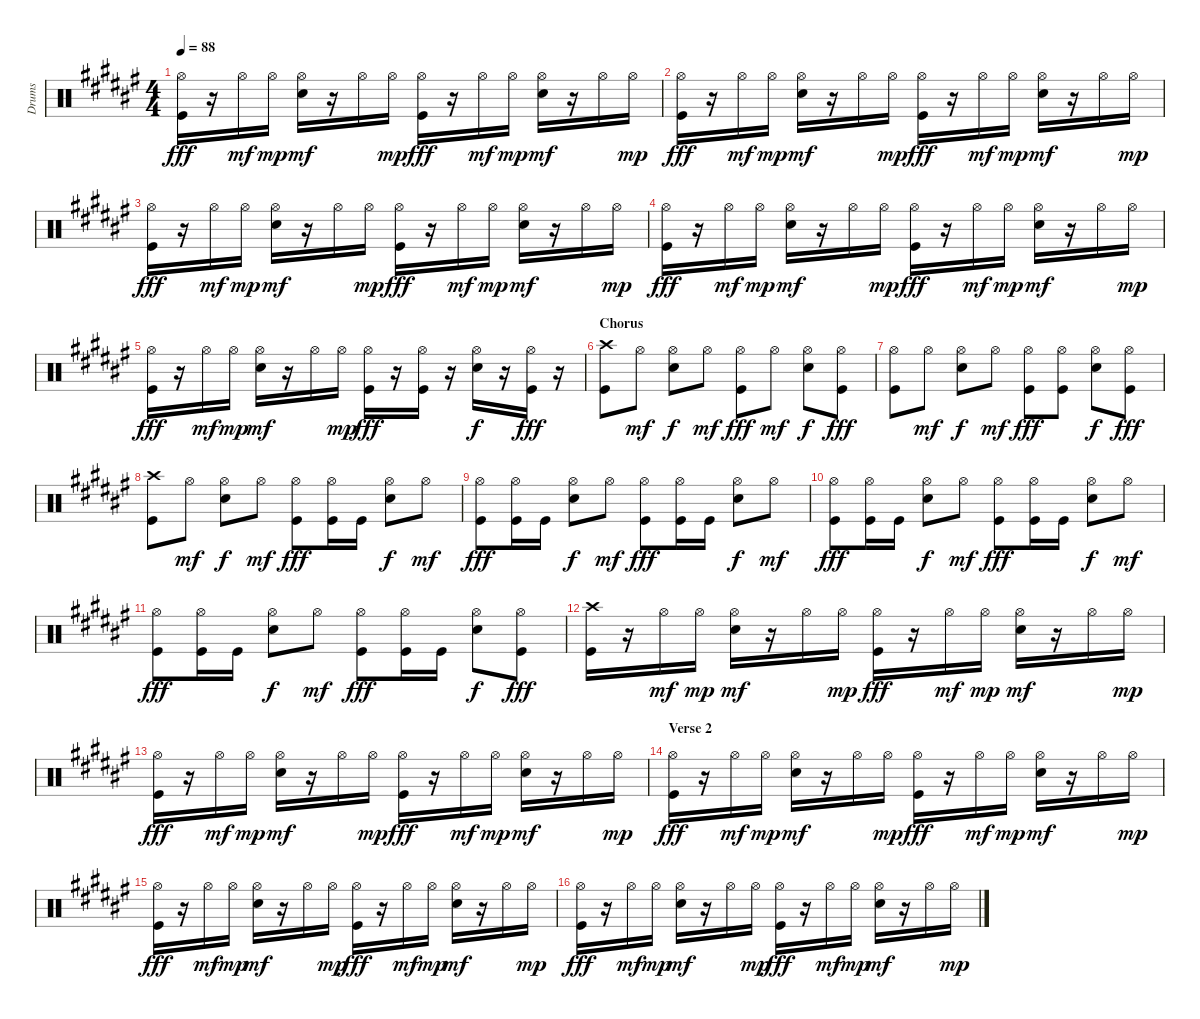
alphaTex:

\track ("Drums" "Drums") {instrument percussion}
\staff {score}
\articulation defaults
\ts (4 4)
\tempo 88
\clef neutral
\ks f#
("Hi-Hat (open)" "Kick (hit)").16{dy fff} r.16 "Hi-Hat (open)".16{dy mf} "Hi-Hat (open)".16{dy mp} ("Hi-Hat (open)" "Snare (hit) 2").16{dy mf} r.16 "Hi-Hat (open)".16 "Hi-Hat (open)".16{dy mp} ("Hi-Hat (open)" "Kick (hit)").16{dy fff} r.16 "Hi-Hat (open)".16{dy mf} "Hi-Hat (open)".16{dy mp} ("Hi-Hat (open)" "Snare (hit) 2").16{dy mf} r.16 "Hi-Hat (open)".16 "Hi-Hat (open)".16{dy mp} |
("Hi-Hat (open)" "Kick (hit)").16{dy fff} r.16 "Hi-Hat (open)".16{dy mf} "Hi-Hat (open)".16{dy mp} ("Hi-Hat (open)" "Snare (hit) 2").16{dy mf} r.16 "Hi-Hat (open)".16 "Hi-Hat (open)".16{dy mp} ("Hi-Hat (open)" "Kick (hit)").16{dy fff} r.16 "Hi-Hat (open)".16{dy mf} "Hi-Hat (open)".16{dy mp} ("Hi-Hat (open)" "Snare (hit) 2").16{dy mf} r.16 "Hi-Hat (open)".16 "Hi-Hat (open)".16{dy mp} |
("Hi-Hat (open)" "Kick (hit)").16{dy fff} r.16 "Hi-Hat (open)".16{dy mf} "Hi-Hat (open)".16{dy mp} ("Hi-Hat (open)" "Snare (hit) 2").16{dy mf} r.16 "Hi-Hat (open)".16 "Hi-Hat (open)".16{dy mp} ("Hi-Hat (open)" "Kick (hit)").16{dy fff} r.16 "Hi-Hat (open)".16{dy mf} "Hi-Hat (open)".16{dy mp} ("Hi-Hat (open)" "Snare (hit) 2").16{dy mf} r.16 "Hi-Hat (open)".16 "Hi-Hat (open)".16{dy mp} |
("Hi-Hat (open)" "Kick (hit)").16{dy fff} r.16 "Hi-Hat (open)".16{dy mf} "Hi-Hat (open)".16{dy mp} ("Hi-Hat (open)" "Snare (hit) 2").16{dy mf} r.16 "Hi-Hat (open)".16 "Hi-Hat (open)".16{dy mp} ("Hi-Hat (open)" "Kick (hit)").16{dy fff} r.16 "Hi-Hat (open)".16{dy mf} "Hi-Hat (open)".16{dy mp} ("Hi-Hat (open)" "Snare (hit) 2").16{dy mf} r.16 "Hi-Hat (open)".16 "Hi-Hat (open)".16{dy mp} |
("Hi-Hat (open)" "Kick (hit)").16{dy fff} r.16 "Hi-Hat (open)".16{dy mf} "Hi-Hat (open)".16{dy mp} ("Hi-Hat (open)" "Snare (hit) 2").16{dy mf} r.16 "Hi-Hat (open)".16 "Hi-Hat (open)".16{dy mp} ("Hi-Hat (open)" "Kick (hit)").16{dy fff} r.16 ("Hi-Hat (open)" "Kick (hit)").16 r.16 ("Hi-Hat (open)" "Snare (hit) 2").16{dy f} r.16 ("Hi-Hat (open)" "Kick (hit)").16{dy fff} r.16 |
\section ("" "Chorus")
("Crash high (hit)" "Kick (hit)").8 "Hi-Hat (open)".8{dy mf} ("Hi-Hat (open)" "Snare (hit) 2").8{dy f} "Hi-Hat (open)".8{dy mf} ("Hi-Hat (open)" "Kick (hit)").8{dy fff} "Hi-Hat (open)".8{dy mf} ("Hi-Hat (open)" "Snare (hit) 2").8{dy f} ("Hi-Hat (open)" "Kick (hit)").8{dy fff} |
("Hi-Hat (open)" "Kick (hit)").8 "Hi-Hat (open)".8{dy mf} ("Hi-Hat (open)" "Snare (hit) 2").8{dy f} "Hi-Hat (open)".8{dy mf} ("Hi-Hat (open)" "Kick (hit)").8{dy fff} ("Hi-Hat (open)" "Kick (hit)").8 ("Hi-Hat (open)" "Snare (hit) 2").8{dy f} ("Hi-Hat (open)" "Kick (hit)").8{dy fff} |
("Crash high (hit)" "Kick (hit)").8 "Hi-Hat (open)".8{dy mf} ("Hi-Hat (open)" "Snare (hit) 2").8{dy f} "Hi-Hat (open)".8{dy mf} ("Hi-Hat (open)" "Kick (hit)").8{dy fff} ("Hi-Hat (open)" "Kick (hit)").16 "Kick (hit)".16 ("Hi-Hat (open)" "Snare (hit) 2").8{dy f} "Hi-Hat (open)".8{dy mf} |
("Hi-Hat (open)" "Kick (hit)").8{dy fff} ("Hi-Hat (open)" "Kick (hit)").16 "Kick (hit)".16 ("Hi-Hat (open)" "Snare (hit) 2").8{dy f} "Hi-Hat (open)".8{dy mf} ("Hi-Hat (open)" "Kick (hit)").8{dy fff} ("Hi-Hat (open)" "Kick (hit)").16 "Kick (hit)".16 ("Hi-Hat (open)" "Snare (hit) 2").8{dy f} "Hi-Hat (open)".8{dy mf} |
("Hi-Hat (open)" "Kick (hit)").8{dy fff} ("Hi-Hat (open)" "Kick (hit)").16 "Kick (hit)".16 ("Hi-Hat (open)" "Snare (hit) 2").8{dy f} "Hi-Hat (open)".8{dy mf} ("Hi-Hat (open)" "Kick (hit)").8{dy fff} ("Hi-Hat (open)" "Kick (hit)").16 "Kick (hit)".16 ("Hi-Hat (open)" "Snare (hit) 2").8{dy f} "Hi-Hat (open)".8{dy mf} |
("Hi-Hat (open)" "Kick (hit)").8{dy fff} ("Hi-Hat (open)" "Kick (hit)").16 "Kick (hit)".16 ("Hi-Hat (open)" "Snare (hit) 2").8{dy f} "Hi-Hat (open)".8{dy mf} ("Hi-Hat (open)" "Kick (hit)").8{dy fff} ("Hi-Hat (open)" "Kick (hit)").16 "Kick (hit)".16 ("Hi-Hat (open)" "Snare (hit) 2").8{dy f} ("Hi-Hat (open)" "Kick (hit)").8{dy fff} |
("Crash high (hit)" "Kick (hit)").16 r.16 "Hi-Hat (open)".16{dy mf} "Hi-Hat (open)".16{dy mp} ("Hi-Hat (open)" "Snare (hit) 2").16{dy mf} r.16 "Hi-Hat (open)".16 "Hi-Hat (open)".16{dy mp} ("Hi-Hat (open)" "Kick (hit)").16{dy fff} r.16 "Hi-Hat (open)".16{dy mf} "Hi-Hat (open)".16{dy mp} ("Hi-Hat (open)" "Snare (hit) 2").16{dy mf} r.16 "Hi-Hat (open)".16 "Hi-Hat (open)".16{dy mp} |
("Hi-Hat (open)" "Kick (hit)").16{dy fff} r.16 "Hi-Hat (open)".16{dy mf} "Hi-Hat (open)".16{dy mp} ("Hi-Hat (open)" "Snare (hit) 2").16{dy mf} r.16 "Hi-Hat (open)".16 "Hi-Hat (open)".16{dy mp} ("Hi-Hat (open)" "Kick (hit)").16{dy fff} r.16 "Hi-Hat (open)".16{dy mf} "Hi-Hat (open)".16{dy mp} ("Hi-Hat (open)" "Snare (hit) 2").16{dy mf} r.16 "Hi-Hat (open)".16 "Hi-Hat (open)".16{dy mp} |
\section ("" "Verse 2")
("Hi-Hat (open)" "Kick (hit)").16{dy fff} r.16 "Hi-Hat (open)".16{dy mf} "Hi-Hat (open)".16{dy mp} ("Hi-Hat (open)" "Snare (hit) 2").16{dy mf} r.16 "Hi-Hat (open)".16 "Hi-Hat (open)".16{dy mp} ("Hi-Hat (open)" "Kick (hit)").16{dy fff} r.16 "Hi-Hat (open)".16{dy mf} "Hi-Hat (open)".16{dy mp} ("Hi-Hat (open)" "Snare (hit) 2").16{dy mf} r.16 "Hi-Hat (open)".16 "Hi-Hat (open)".16{dy mp} |
("Hi-Hat (open)" "Kick (hit)").16{dy fff} r.16 "Hi-Hat (open)".16{dy mf} "Hi-Hat (open)".16{dy mp} ("Hi-Hat (open)" "Snare (hit) 2").16{dy mf} r.16 "Hi-Hat (open)".16 "Hi-Hat (open)".16{dy mp} ("Hi-Hat (open)" "Kick (hit)").16{dy fff} r.16 "Hi-Hat (open)".16{dy mf} "Hi-Hat (open)".16{dy mp} ("Hi-Hat (open)" "Snare (hit) 2").16{dy mf} r.16 "Hi-Hat (open)".16 "Hi-Hat (open)".16{dy mp} |
("Hi-Hat (open)" "Kick (hit)").16{dy fff} r.16 "Hi-Hat (open)".16{dy mf} "Hi-Hat (open)".16{dy mp} ("Hi-Hat (open)" "Snare (hit) 2").16{dy mf} r.16 "Hi-Hat (open)".16 "Hi-Hat (open)".16{dy mp} ("Hi-Hat (open)" "Kick (hit)").16{dy fff} r.16 "Hi-Hat (open)".16{dy mf} "Hi-Hat (open)".16{dy mp} ("Hi-Hat (open)" "Snare (hit) 2").16{dy mf} r.16 "Hi-Hat (open)".16 "Hi-Hat (open)".16{dy mp}
